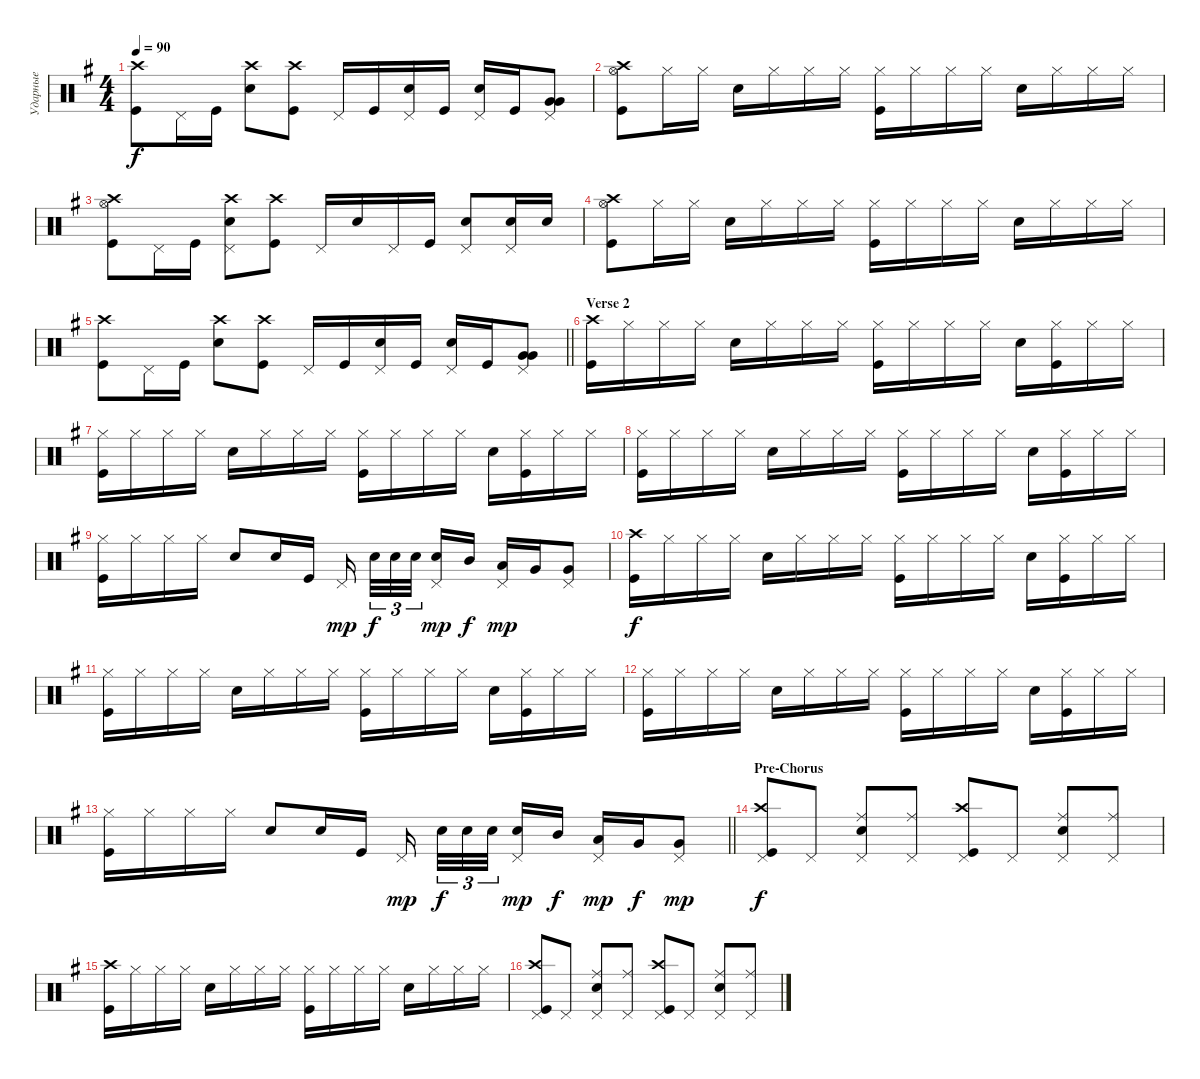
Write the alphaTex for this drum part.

\track ("Ударные" "Ударные") {instrument percussion}
\staff {score}
\articulation defaults
\ts (4 4)
\tempo 90
\clef neutral
\ks eminor
("Kick (hit)" "Crash high (hit)").8{dy f} "Pedal Hi-Hat (hit)".16 "Kick (hit)".16 ("Crash high (hit)" "Snare (hit) 2").8 ("Kick (hit)" "Crash high (hit)").8 "Pedal Hi-Hat (hit)".16 "Kick (hit)".16 ("Snare (hit) 2" "Pedal Hi-Hat (hit)").16 "Kick (hit)".16 ("Snare (hit) 2" "Pedal Hi-Hat (hit)").16 "Kick (hit)".16 ("Very Low Tom (hit)" "Very Low Tom (hit)" "Pedal Hi-Hat (hit)").8{bd 240} |
("Kick (hit)" "Crash high (hit)" "Hi-Hat (open)").8 "Hi-Hat (closed)".16 "Hi-Hat (closed)".16 "Snare (hit) 2".16 "Hi-Hat (closed)".16 "Hi-Hat (closed)".16 "Hi-Hat (closed)".16 ("Hi-Hat (closed)" "Kick (hit)").16 "Hi-Hat (closed)".16 "Hi-Hat (closed)".16 "Hi-Hat (closed)".16 "Snare (hit) 2".16 "Hi-Hat (closed)".16 "Hi-Hat (closed)".16 "Hi-Hat (closed)".16 |
("Kick (hit)" "Crash high (hit)" "Hi-Hat (open)").8 "Pedal Hi-Hat (hit)".16 "Kick (hit)".16 ("Crash high (hit)" "Snare (hit) 2" "Pedal Hi-Hat (hit)").8 ("Kick (hit)" "Crash high (hit)").8 "Pedal Hi-Hat (hit)".16 "Snare (hit) 2".16 "Pedal Hi-Hat (hit)".16 "Kick (hit)".16 ("Snare (hit) 2" "Pedal Hi-Hat (hit)").8 ("Snare (hit) 2" "Pedal Hi-Hat (hit)").16 "Snare (hit) 2".16 |
("Kick (hit)" "Crash high (hit)" "Hi-Hat (open)").8 "Hi-Hat (closed)".16 "Hi-Hat (closed)".16 "Snare (hit) 2".16 "Hi-Hat (closed)".16 "Hi-Hat (closed)".16 "Hi-Hat (closed)".16 ("Hi-Hat (closed)" "Kick (hit)").16 "Hi-Hat (closed)".16 "Hi-Hat (closed)".16 "Hi-Hat (closed)".16 "Snare (hit) 2".16 "Hi-Hat (closed)".16 "Hi-Hat (closed)".16 "Hi-Hat (closed)".16 |
\barLineRight lightlight
("Kick (hit)" "Crash high (hit)").8 "Pedal Hi-Hat (hit)".16 "Kick (hit)".16 ("Crash high (hit)" "Snare (hit) 2").8 ("Kick (hit)" "Crash high (hit)").8 "Pedal Hi-Hat (hit)".16 "Kick (hit)".16 ("Snare (hit) 2" "Pedal Hi-Hat (hit)").16 "Kick (hit)".16 ("Snare (hit) 2" "Pedal Hi-Hat (hit)").16 "Kick (hit)".16 ("Very Low Tom (hit)" "Very Low Tom (hit)" "Pedal Hi-Hat (hit)").8{bd 240} |
\section ("" "Verse 2")
("Kick (hit)" "Crash high (hit)").16 "Hi-Hat (closed)".16 "Hi-Hat (closed)".16 "Hi-Hat (closed)".16 "Snare (hit) 2".16 "Hi-Hat (closed)".16 "Hi-Hat (closed)".16 "Hi-Hat (closed)".16 ("Kick (hit)" "Hi-Hat (closed)").16 "Hi-Hat (closed)".16 "Hi-Hat (closed)".16 "Hi-Hat (closed)".16 "Snare (hit) 2".16 ("Hi-Hat (closed)" "Kick (hit)").16 "Hi-Hat (closed)".16 "Hi-Hat (closed)".16 |
("Kick (hit)" "Hi-Hat (closed)").16 "Hi-Hat (closed)".16 "Hi-Hat (closed)".16 "Hi-Hat (closed)".16 "Snare (hit) 2".16 "Hi-Hat (closed)".16 "Hi-Hat (closed)".16 "Hi-Hat (closed)".16 ("Kick (hit)" "Hi-Hat (closed)").16 "Hi-Hat (closed)".16 "Hi-Hat (closed)".16 "Hi-Hat (closed)".16 "Snare (hit) 2".16 ("Hi-Hat (closed)" "Kick (hit)").16 "Hi-Hat (closed)".16 "Hi-Hat (closed)".16 |
("Kick (hit)" "Hi-Hat (closed)").16 "Hi-Hat (closed)".16 "Hi-Hat (closed)".16 "Hi-Hat (closed)".16 "Snare (hit) 2".16 "Hi-Hat (closed)".16 "Hi-Hat (closed)".16 "Hi-Hat (closed)".16 ("Kick (hit)" "Hi-Hat (closed)").16 "Hi-Hat (closed)".16 "Hi-Hat (closed)".16 "Hi-Hat (closed)".16 "Snare (hit) 2".16 ("Hi-Hat (closed)" "Kick (hit)").16 "Hi-Hat (closed)".16 "Hi-Hat (closed)".16 |
("Kick (hit)" "Hi-Hat (closed)").16 "Hi-Hat (closed)".16 "Hi-Hat (closed)".16 "Hi-Hat (closed)".16 "Snare (hit) 2".8 "Snare (hit) 2".16 "Kick (hit)".16 "Pedal Hi-Hat (hit)".16{dy mp beam splitsecondary} "Snare (hit) 2".32{tu (3 2) dy f} "Snare (hit) 2".32{tu (3 2)} "Snare (hit) 2".32{tu (3 2) beam splitsecondary} ("Snare (hit) 2" "Pedal Hi-Hat (hit)").16{dy mp} "Mid Tom (hit)".16{dy f} ("Low Tom (hit)" "Pedal Hi-Hat (hit)").16{dy mp} "Very Low Tom (hit)".16 ("Very Low Tom (hit)" "Pedal Hi-Hat (hit)").8 |
("Kick (hit)" "Crash high (hit)").16{dy f} "Hi-Hat (closed)".16 "Hi-Hat (closed)".16 "Hi-Hat (closed)".16 "Snare (hit) 2".16 "Hi-Hat (closed)".16 "Hi-Hat (closed)".16 "Hi-Hat (closed)".16 ("Kick (hit)" "Hi-Hat (closed)").16 "Hi-Hat (closed)".16 "Hi-Hat (closed)".16 "Hi-Hat (closed)".16 "Snare (hit) 2".16 ("Hi-Hat (closed)" "Kick (hit)").16 "Hi-Hat (closed)".16 "Hi-Hat (closed)".16 |
("Kick (hit)" "Hi-Hat (closed)").16 "Hi-Hat (closed)".16 "Hi-Hat (closed)".16 "Hi-Hat (closed)".16 "Snare (hit) 2".16 "Hi-Hat (closed)".16 "Hi-Hat (closed)".16 "Hi-Hat (closed)".16 ("Kick (hit)" "Hi-Hat (closed)").16 "Hi-Hat (closed)".16 "Hi-Hat (closed)".16 "Hi-Hat (closed)".16 "Snare (hit) 2".16 ("Hi-Hat (closed)" "Kick (hit)").16 "Hi-Hat (closed)".16 "Hi-Hat (closed)".16 |
("Kick (hit)" "Hi-Hat (closed)").16 "Hi-Hat (closed)".16 "Hi-Hat (closed)".16 "Hi-Hat (closed)".16 "Snare (hit) 2".16 "Hi-Hat (closed)".16 "Hi-Hat (closed)".16 "Hi-Hat (closed)".16 ("Kick (hit)" "Hi-Hat (closed)").16 "Hi-Hat (closed)".16 "Hi-Hat (closed)".16 "Hi-Hat (closed)".16 "Snare (hit) 2".16 ("Hi-Hat (closed)" "Kick (hit)").16 "Hi-Hat (closed)".16 "Hi-Hat (closed)".16 |
\barLineRight lightlight
("Kick (hit)" "Hi-Hat (closed)").16 "Hi-Hat (closed)".16 "Hi-Hat (closed)".16 "Hi-Hat (closed)".16 "Snare (hit) 2".8 "Snare (hit) 2".16 "Kick (hit)".16 "Pedal Hi-Hat (hit)".16{dy mp beam splitsecondary} "Snare (hit) 2".32{tu (3 2) dy f} "Snare (hit) 2".32{tu (3 2)} "Snare (hit) 2".32{tu (3 2) beam splitsecondary} ("Snare (hit) 2" "Pedal Hi-Hat (hit)").16{dy mp} "Mid Tom (hit)".16{dy f} ("Low Tom (hit)" "Pedal Hi-Hat (hit)").16{dy mp} "Very Low Tom (hit)".16{dy f} ("Very Low Tom (hit)" "Pedal Hi-Hat (hit)").8{dy mp} |
\section ("" "Pre-Chorus")
("Kick (hit)" "Crash high (hit)" "Pedal Hi-Hat (hit)").8{dy f} "Pedal Hi-Hat (hit)".8 ("Ride (middle)" "Pedal Hi-Hat (hit)" "Snare (hit) 2").8 ("Ride (middle)" "Pedal Hi-Hat (hit)").8 ("Kick (hit)" "Crash high (hit)" "Pedal Hi-Hat (hit)").8 "Pedal Hi-Hat (hit)".8 ("Ride (middle)" "Pedal Hi-Hat (hit)" "Snare (hit) 2").8 ("Ride (middle)" "Pedal Hi-Hat (hit)").8 |
("Kick (hit)" "Crash high (hit)").16 "Hi-Hat (closed)".16 "Hi-Hat (closed)".16 "Hi-Hat (closed)".16 "Snare (hit) 2".16 "Hi-Hat (closed)".16 "Hi-Hat (closed)".16 "Hi-Hat (closed)".16 ("Kick (hit)" "Hi-Hat (closed)").16 "Hi-Hat (closed)".16 "Hi-Hat (closed)".16 "Hi-Hat (closed)".16 "Snare (hit) 2".16 "Hi-Hat (closed)".16 "Hi-Hat (closed)".16 "Hi-Hat (closed)".16 |
("Kick (hit)" "Crash high (hit)" "Pedal Hi-Hat (hit)").8 "Pedal Hi-Hat (hit)".8 ("Ride (middle)" "Pedal Hi-Hat (hit)" "Snare (hit) 2").8 ("Ride (middle)" "Pedal Hi-Hat (hit)").8 ("Kick (hit)" "Crash high (hit)" "Pedal Hi-Hat (hit)").8 "Pedal Hi-Hat (hit)".8 ("Ride (middle)" "Pedal Hi-Hat (hit)" "Snare (hit) 2").8 ("Ride (middle)" "Pedal Hi-Hat (hit)").8
